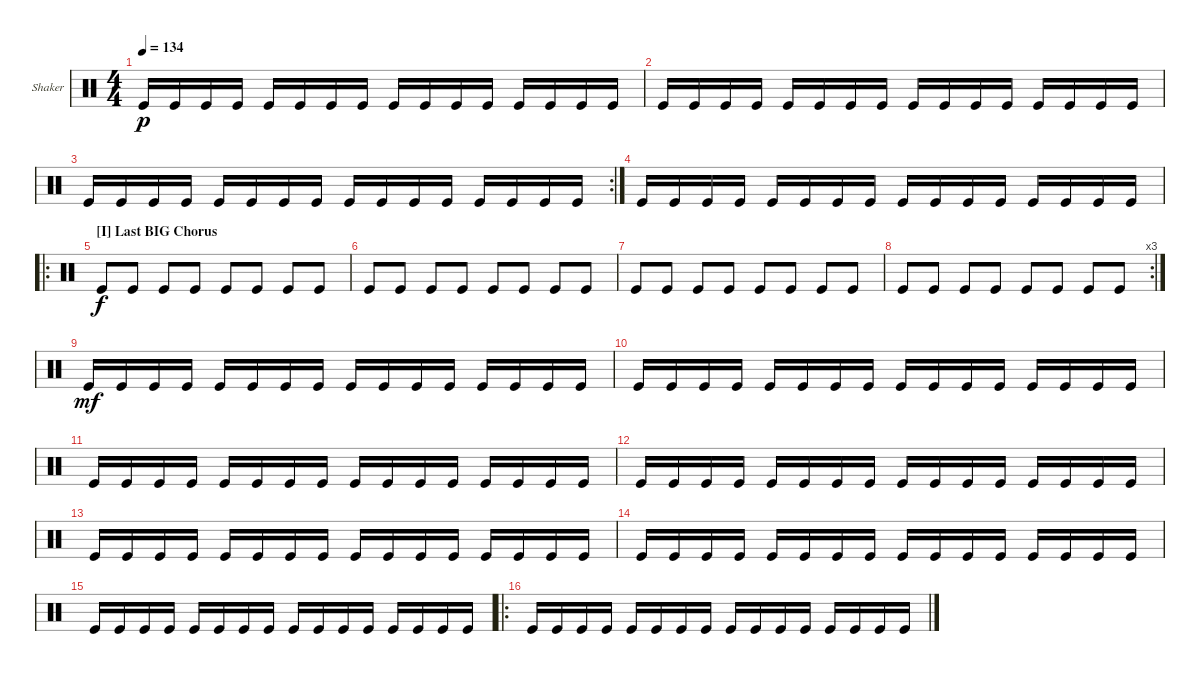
\defaultSystemsLayout 4
\bracketExtendMode groupsimilarinstruments
\firstSystemTrackNameOrientation horizontal
\otherSystemsTrackNameOrientation horizontal
\track ("Shaker" "Shaker") {instrument percussion}
\staff {score}
\articulation defaults
\ts (4 4)
\tempo 134
\clef neutral
\ks c "Kick (hit)".16{dy p} "Kick (hit)".16 "Kick (hit)".16 "Kick (hit)".16 "Kick (hit)".16 "Kick (hit)".16 "Kick (hit)".16 "Kick (hit)".16 "Kick (hit)".16 "Kick (hit)".16 "Kick (hit)".16 "Kick (hit)".16 "Kick (hit)".16 "Kick (hit)".16 "Kick (hit)".16 "Kick (hit)".16
|
"Kick (hit)".16 "Kick (hit)".16 "Kick (hit)".16 "Kick (hit)".16 "Kick (hit)".16 "Kick (hit)".16 "Kick (hit)".16 "Kick (hit)".16 "Kick (hit)".16 "Kick (hit)".16 "Kick (hit)".16 "Kick (hit)".16 "Kick (hit)".16 "Kick (hit)".16 "Kick (hit)".16 "Kick (hit)".16 |
\rc 2 "Kick (hit)".16 "Kick (hit)".16 "Kick (hit)".16 "Kick (hit)".16 "Kick (hit)".16 "Kick (hit)".16 "Kick (hit)".16 "Kick (hit)".16 "Kick (hit)".16 "Kick (hit)".16 "Kick (hit)".16 "Kick (hit)".16 "Kick (hit)".16 "Kick (hit)".16 "Kick (hit)".16 "Kick (hit)".16
|
"Kick (hit)".16 "Kick (hit)".16 "Kick (hit)".16 "Kick (hit)".16 "Kick (hit)".16 "Kick (hit)".16 "Kick (hit)".16 "Kick (hit)".16 "Kick (hit)".16 "Kick (hit)".16 "Kick (hit)".16 "Kick (hit)".16 "Kick (hit)".16 "Kick (hit)".16 "Kick (hit)".16 "Kick (hit)".16 |
\ro
\section ("I" "Last BIG Chorus")
"Kick (hit)".8{dy f} "Kick (hit)".8 "Kick (hit)".8 "Kick (hit)".8 "Kick (hit)".8 "Kick (hit)".8 "Kick (hit)".8 "Kick (hit)".8 |
"Kick (hit)".8 "Kick (hit)".8 "Kick (hit)".8 "Kick (hit)".8 "Kick (hit)".8 "Kick (hit)".8 "Kick (hit)".8 "Kick (hit)".8 |
"Kick (hit)".8 "Kick (hit)".8 "Kick (hit)".8 "Kick (hit)".8 "Kick (hit)".8 "Kick (hit)".8 "Kick (hit)".8 "Kick (hit)".8 |
\rc 3 "Kick (hit)".8 "Kick (hit)".8 "Kick (hit)".8 "Kick (hit)".8 "Kick (hit)".8 "Kick (hit)".8 "Kick (hit)".8 "Kick (hit)".8
|
"Kick (hit)".16{dy mf} "Kick (hit)".16 "Kick (hit)".16 "Kick (hit)".16 "Kick (hit)".16 "Kick (hit)".16 "Kick (hit)".16 "Kick (hit)".16 "Kick (hit)".16 "Kick (hit)".16 "Kick (hit)".16 "Kick (hit)".16 "Kick (hit)".16 "Kick (hit)".16 "Kick (hit)".16 "Kick (hit)".16 |
"Kick (hit)".16 "Kick (hit)".16 "Kick (hit)".16 "Kick (hit)".16 "Kick (hit)".16 "Kick (hit)".16 "Kick (hit)".16 "Kick (hit)".16 "Kick (hit)".16 "Kick (hit)".16 "Kick (hit)".16 "Kick (hit)".16 "Kick (hit)".16 "Kick (hit)".16 "Kick (hit)".16 "Kick (hit)".16 |
"Kick (hit)".16 "Kick (hit)".16 "Kick (hit)".16 "Kick (hit)".16 "Kick (hit)".16 "Kick (hit)".16 "Kick (hit)".16 "Kick (hit)".16 "Kick (hit)".16 "Kick (hit)".16 "Kick (hit)".16 "Kick (hit)".16 "Kick (hit)".16 "Kick (hit)".16 "Kick (hit)".16 "Kick (hit)".16 |
"Kick (hit)".16 "Kick (hit)".16 "Kick (hit)".16 "Kick (hit)".16 "Kick (hit)".16 "Kick (hit)".16 "Kick (hit)".16 "Kick (hit)".16 "Kick (hit)".16 "Kick (hit)".16 "Kick (hit)".16 "Kick (hit)".16 "Kick (hit)".16 "Kick (hit)".16 "Kick (hit)".16 "Kick (hit)".16 |
"Kick (hit)".16 "Kick (hit)".16 "Kick (hit)".16 "Kick (hit)".16 "Kick (hit)".16 "Kick (hit)".16 "Kick (hit)".16 "Kick (hit)".16 "Kick (hit)".16 "Kick (hit)".16 "Kick (hit)".16 "Kick (hit)".16 "Kick (hit)".16 "Kick (hit)".16 "Kick (hit)".16 "Kick (hit)".16 |
"Kick (hit)".16 "Kick (hit)".16 "Kick (hit)".16 "Kick (hit)".16 "Kick (hit)".16 "Kick (hit)".16 "Kick (hit)".16 "Kick (hit)".16 "Kick (hit)".16 "Kick (hit)".16 "Kick (hit)".16 "Kick (hit)".16 "Kick (hit)".16 "Kick (hit)".16 "Kick (hit)".16 "Kick (hit)".16 |
"Kick (hit)".16 "Kick (hit)".16 "Kick (hit)".16 "Kick (hit)".16 "Kick (hit)".16 "Kick (hit)".16 "Kick (hit)".16 "Kick (hit)".16 "Kick (hit)".16 "Kick (hit)".16 "Kick (hit)".16 "Kick (hit)".16 "Kick (hit)".16 "Kick (hit)".16 "Kick (hit)".16 "Kick (hit)".16 |
\ro "Kick (hit)".16 "Kick (hit)".16 "Kick (hit)".16 "Kick (hit)".16 "Kick (hit)".16 "Kick (hit)".16 "Kick (hit)".16 "Kick (hit)".16 "Kick (hit)".16 "Kick (hit)".16 "Kick (hit)".16 "Kick (hit)".16 "Kick (hit)".16 "Kick (hit)".16 "Kick (hit)".16 "Kick (hit)".16
